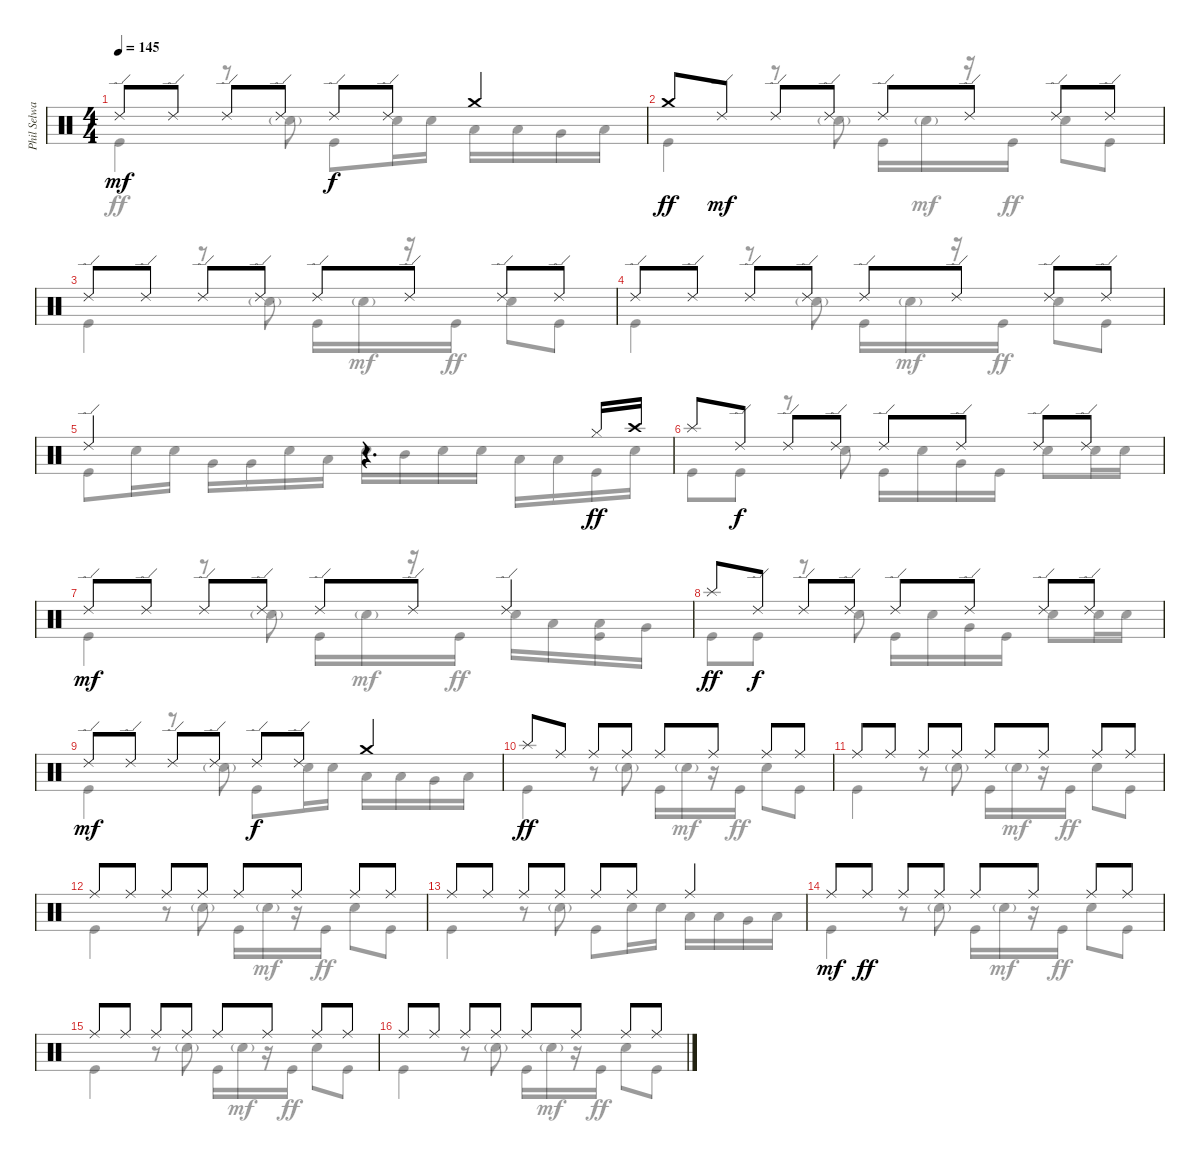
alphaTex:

\track ("Phil Selway" "Phil Selwa") {instrument percussion}
\staff {score}
\articulation defaults
\voice
\ts (4 4)
\tempo 145
\clef neutral
\ks c "Ride (edge) 2".8{dy mf} "Ride (edge) 2".8 "Ride (edge) 2".8 "Ride (edge) 2".8 "Ride (edge) 2".8{dy f} "Ride (edge) 2".8 "Crash medium (hit)".4
|
"Crash medium (hit)".8{dy ff} "Ride (edge) 2".8{dy mf} "Ride (edge) 2".8 "Ride (edge) 2".8 "Ride (edge) 2".8 "Ride (edge) 2".8 "Ride (edge) 2".8 "Ride (edge) 2".8 |
"Ride (edge) 2".8 "Ride (edge) 2".8 "Ride (edge) 2".8 "Ride (edge) 2".8 "Ride (edge) 2".8 "Ride (edge) 2".8 "Ride (edge) 2".8 "Ride (edge) 2".8 |
"Ride (edge) 2".8 "Ride (edge) 2".8 "Ride (edge) 2".8 "Ride (edge) 2".8 "Ride (edge) 2".8 "Ride (edge) 2".8 "Ride (edge) 2".8 "Ride (edge) 2".8 |
"Ride (edge) 2".2 r.4{d} "Hi-Hat (closed)".16{dy ff} "Crash high (hit)".16 |
"Splash (hit)".8 "Ride (edge) 2".8{dy f} "Ride (edge) 2".8 "Ride (edge) 2".8 "Ride (edge) 2".8 "Ride (edge) 2".8 "Ride (edge) 2".8 "Ride (edge) 2".8 |
"Ride (edge) 2".8{dy mf} "Ride (edge) 2".8 "Ride (edge) 2".8 "Ride (edge) 2".8 "Ride (edge) 2".8 "Ride (edge) 2".8 "Ride (edge) 2".4 |
"Splash (hit)".8{dy ff} "Ride (edge) 2".8{dy f} "Ride (edge) 2".8 "Ride (edge) 2".8 "Ride (edge) 2".8 "Ride (edge) 2".8 "Ride (edge) 2".8 "Ride (edge) 2".8 |
"Ride (edge) 2".8{dy mf} "Ride (edge) 2".8 "Ride (edge) 2".8 "Ride (edge) 2".8 "Ride (edge) 2".8{dy f} "Ride (edge) 2".8 "Crash medium (hit)".4 |
"Splash (hit)".8{dy ff} "Ride (middle)".8 "Ride (middle)".8 "Ride (middle)".8 "Ride (middle)".8 "Ride (middle)".8 "Ride (middle)".8 "Ride (middle)".8 |
"Ride (middle)".8 "Ride (middle)".8 "Ride (middle)".8 "Ride (middle)".8 "Ride (middle)".8 "Ride (middle)".8 "Ride (middle)".8 "Ride (middle)".8 |
"Ride (middle)".8 "Ride (middle)".8 "Ride (middle)".8 "Ride (middle)".8 "Ride (middle)".8 "Ride (middle)".8 "Ride (middle)".8 "Ride (middle)".8 |
"Ride (middle)".8 "Ride (middle)".8 "Ride (middle)".8 "Ride (middle)".8 "Ride (middle)".8 "Ride (middle)".8 "Ride (middle)".4 |
"Ride (middle)".8{dy mf} "Ride (middle)".8{dy ff} "Ride (middle)".8 "Ride (middle)".8 "Ride (middle)".8 "Ride (middle)".8 "Ride (middle)".8 "Ride (middle)".8 |
"Ride (middle)".8 "Ride (middle)".8 "Ride (middle)".8 "Ride (middle)".8 "Ride (middle)".8 "Ride (middle)".8 "Ride (middle)".8 "Ride (middle)".8 |
"Ride (middle)".8 "Ride (middle)".8 "Ride (middle)".8 "Ride (middle)".8 "Ride (middle)".8 "Ride (middle)".8 "Ride (middle)".8 "Ride (middle)".8
\voice
\clef neutral
\ottava regular
\simile none
\ks c "Kick (hit)".4{dy ff}
r.8 "Snare (hit) 2"{g}.8 "Kick (hit)".8 "Snare (hit) 2".16 "Snare (hit) 2".16 "Low Tom (hit)".16 "Low Tom (hit)".16 "Very Low Tom (hit)".16 "Low Floor Tom (hit)".16 |
"Kick (hit)".4 r.8 "Snare (hit) 2"{g}.8 "Kick (hit)".16 "Snare (hit) 2"{g}.16{dy mf} r.16 "Kick (hit)".16{dy ff} "Snare (hit) 2".8 "Kick (hit)".8 |
"Kick (hit)".4 r.8 "Snare (hit) 2"{g}.8 "Kick (hit)".16 "Snare (hit) 2"{g}.16{dy mf} r.16 "Kick (hit)".16{dy ff} "Snare (hit) 2".8 "Kick (hit)".8 |
"Kick (hit)".4 r.8 "Snare (hit) 2"{g}.8 "Kick (hit)".16 "Snare (hit) 2"{g}.16{dy mf} r.16 "Kick (hit)".16{dy ff} "Snare (hit) 2".8 "Kick (hit)".8 |
"Kick (hit)".8 "Snare (hit) 2".16 "Snare (hit) 2".16 "Very Low Tom (hit)".16 "Very Low Tom (hit)".16 "Snare (hit) 2".16 "Low Tom (hit)".16 "Snare (hit) 2".16 "Mid Tom (hit)".16 "Snare (hit) 2".16 "Snare (hit) 2".16 "Low Tom (hit)".16 "Low Tom (hit)".16 "Kick (hit)".16 "Snare (hit) 2".16 |
"Kick (hit)".8 "Kick (hit)".8 r.8 "Snare (hit) 2".8 "Kick (hit)".16 "Snare (hit) 2".16 "Very Low Tom (hit)".16 "Kick (hit)".16 "Snare (hit) 2".8 "Snare (hit) 2".16 "Snare (hit) 2".16 |
"Kick (hit)".4 r.8 "Snare (hit) 2"{g}.8 "Kick (hit)".16 "Snare (hit) 2"{g}.16{dy mf} r.16 "Kick (hit)".16{dy ff} "Snare (hit) 2".16 "Low Tom (hit)".16 ("Low Tom (hit)" "Kick (hit)").16 "Very Low Tom (hit)".16 |
"Kick (hit)".8 "Kick (hit)".8 r.8 "Snare (hit) 2".8 "Kick (hit)".16 "Snare (hit) 2".16 "Very Low Tom (hit)".16 "Kick (hit)".16 "Snare (hit) 2".8 "Snare (hit) 2".16 "Snare (hit) 2".16 |
"Kick (hit)".4 r.8 "Snare (hit) 2"{g}.8 "Kick (hit)".8 "Snare (hit) 2".16 "Snare (hit) 2".16 "Low Tom (hit)".16 "Low Tom (hit)".16 "Very Low Tom (hit)".16 "Low Floor Tom (hit)".16 |
"Kick (hit)".4 r.8 "Snare (hit) 2"{g}.8 "Kick (hit)".16 "Snare (hit) 2"{g}.16{dy mf} r.16 "Kick (hit)".16{dy ff} "Snare (hit) 2".8 "Kick (hit)".8 |
"Kick (hit)".4 r.8 "Snare (hit) 2"{g}.8 "Kick (hit)".16 "Snare (hit) 2"{g}.16{dy mf} r.16 "Kick (hit)".16{dy ff} "Snare (hit) 2".8 "Kick (hit)".8 |
"Kick (hit)".4 r.8 "Snare (hit) 2"{g}.8 "Kick (hit)".16 "Snare (hit) 2"{g}.16{dy mf} r.16 "Kick (hit)".16{dy ff} "Snare (hit) 2".8 "Kick (hit)".8 |
"Kick (hit)".4 r.8 "Snare (hit) 2"{g}.8 "Kick (hit)".8 "Snare (hit) 2".16 "Snare (hit) 2".16 "Low Tom (hit)".16 "Low Tom (hit)".16 "Very Low Tom (hit)".16 "Low Floor Tom (hit)".16 |
"Kick (hit)".4 r.8 "Snare (hit) 2"{g}.8 "Kick (hit)".16 "Snare (hit) 2"{g}.16{dy mf} r.16 "Kick (hit)".16{dy ff} "Snare (hit) 2".8 "Kick (hit)".8 |
"Kick (hit)".4 r.8 "Snare (hit) 2"{g}.8 "Kick (hit)".16 "Snare (hit) 2"{g}.16{dy mf} r.16 "Kick (hit)".16{dy ff} "Snare (hit) 2".8 "Kick (hit)".8 |
"Kick (hit)".4 r.8 "Snare (hit) 2"{g}.8 "Kick (hit)".16 "Snare (hit) 2"{g}.16{dy mf} r.16 "Kick (hit)".16{dy ff} "Snare (hit) 2".8 "Kick (hit)".8
